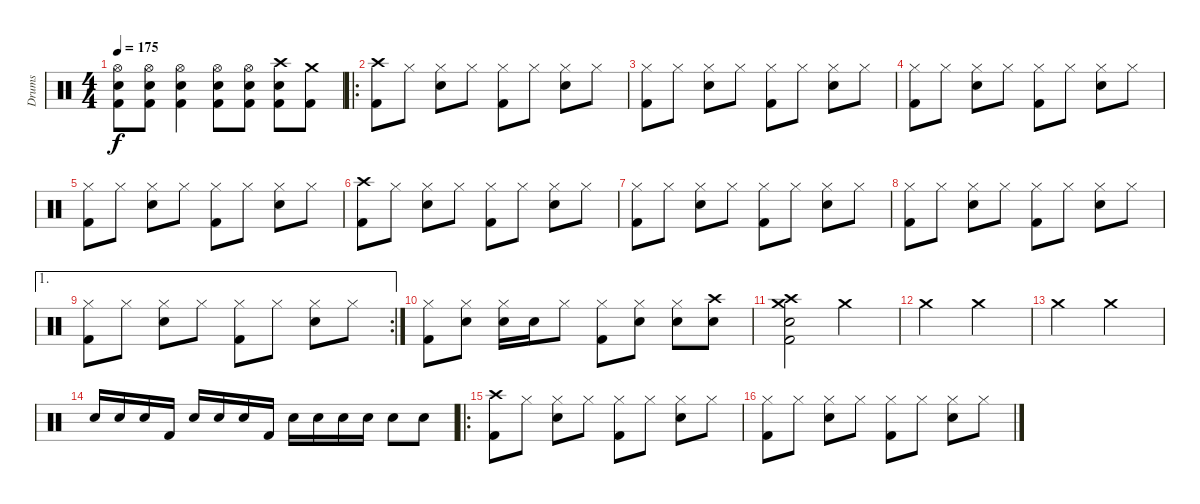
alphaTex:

\track ("Drums" "Drums") {instrument percussion}
\staff {score}
\articulation defaults
\ts (4 4)
\tempo 175
\clef neutral
\ks c
("Hi-Hat (open)" "Snare (hit) 2" "Kick (hit) 2").8{dy f} ("Hi-Hat (open)" "Snare (hit) 2" "Kick (hit) 2").8 ("Hi-Hat (open)" "Snare (hit) 2" "Kick (hit) 2").4 ("Hi-Hat (open)" "Snare (hit) 2" "Kick (hit) 2").8 ("Hi-Hat (open)" "Snare (hit) 2" "Kick (hit) 2").8 ("Crash high (hit)" "Snare (hit) 2" "Kick (hit) 2").8 ("Crash medium (hit)" "Kick (hit) 2").8 |
\ro
("Crash high (hit)" "Kick (hit) 2").8 "Hi-Hat (closed)".8 ("Hi-Hat (closed)" "Snare (hit) 2").8 "Hi-Hat (closed)".8 ("Hi-Hat (closed)" "Kick (hit) 2").8 "Hi-Hat (closed)".8 ("Hi-Hat (closed)" "Snare (hit) 2").8 "Hi-Hat (closed)".8 |
("Hi-Hat (closed)" "Kick (hit) 2").8 "Hi-Hat (closed)".8 ("Hi-Hat (closed)" "Snare (hit) 2").8 "Hi-Hat (closed)".8 ("Hi-Hat (closed)" "Kick (hit) 2").8 "Hi-Hat (closed)".8 ("Hi-Hat (closed)" "Snare (hit) 2").8 "Hi-Hat (closed)".8 |
("Hi-Hat (closed)" "Kick (hit) 2").8 "Hi-Hat (closed)".8 ("Hi-Hat (closed)" "Snare (hit) 2").8 "Hi-Hat (closed)".8 ("Hi-Hat (closed)" "Kick (hit) 2").8 "Hi-Hat (closed)".8 ("Hi-Hat (closed)" "Snare (hit) 2").8 "Hi-Hat (closed)".8 |
("Hi-Hat (closed)" "Kick (hit) 2").8 "Hi-Hat (closed)".8 ("Hi-Hat (closed)" "Snare (hit) 2").8 "Hi-Hat (closed)".8 ("Hi-Hat (closed)" "Kick (hit) 2").8 "Hi-Hat (closed)".8 ("Hi-Hat (closed)" "Snare (hit) 2").8 "Hi-Hat (closed)".8 |
("Crash high (hit)" "Kick (hit) 2").8 "Hi-Hat (closed)".8 ("Hi-Hat (closed)" "Snare (hit) 2").8 "Hi-Hat (closed)".8 ("Hi-Hat (closed)" "Kick (hit) 2").8 "Hi-Hat (closed)".8 ("Hi-Hat (closed)" "Snare (hit) 2").8 "Hi-Hat (closed)".8 |
("Hi-Hat (closed)" "Kick (hit) 2").8 "Hi-Hat (closed)".8 ("Hi-Hat (closed)" "Snare (hit) 2").8 "Hi-Hat (closed)".8 ("Hi-Hat (closed)" "Kick (hit) 2").8 "Hi-Hat (closed)".8 ("Hi-Hat (closed)" "Snare (hit) 2").8 "Hi-Hat (closed)".8 |
("Hi-Hat (closed)" "Kick (hit) 2").8 "Hi-Hat (closed)".8 ("Hi-Hat (closed)" "Snare (hit) 2").8 "Hi-Hat (closed)".8 ("Hi-Hat (closed)" "Kick (hit) 2").8 "Hi-Hat (closed)".8 ("Hi-Hat (closed)" "Snare (hit) 2").8 "Hi-Hat (closed)".8 |
\ae 1
\rc 2
("Hi-Hat (closed)" "Kick (hit) 2").8 "Hi-Hat (closed)".8 ("Hi-Hat (closed)" "Snare (hit) 2").8 "Hi-Hat (closed)".8 ("Hi-Hat (closed)" "Kick (hit) 2").8 "Hi-Hat (closed)".8 ("Hi-Hat (closed)" "Snare (hit) 2").8 "Hi-Hat (closed)".8 |
("Hi-Hat (closed)" "Kick (hit) 2").8 ("Hi-Hat (closed)" "Snare (hit) 2").8 ("Hi-Hat (closed)" "Snare (hit) 2").16 "Snare (hit) 2".16 "Hi-Hat (closed)".8 ("Hi-Hat (closed)" "Kick (hit) 2").8 ("Hi-Hat (closed)" "Snare (hit) 2").8 ("Hi-Hat (closed)" "Snare (hit) 2").8 ("Crash high (hit)" "Snare (hit) 2").8 |
("Crash medium (hit)" "Crash high (hit)" "Snare (hit) 2" "Kick (hit) 2").2 "Crash medium (hit)".2 |
"Crash medium (hit)".2 "Crash medium (hit)".2 |
"Crash medium (hit)".2 "Crash medium (hit)".2 |
"Snare (hit) 2".16 "Snare (hit) 2".16 "Snare (hit) 2".16 "Kick (hit) 2".16 "Snare (hit) 2".16 "Snare (hit) 2".16 "Snare (hit) 2".16 "Kick (hit) 2".16 "Snare (hit) 2".16 "Snare (hit) 2".16 "Snare (hit) 2".16 "Snare (hit) 2".16 "Snare (hit) 2".8 "Snare (hit) 2".8 |
\ro
("Crash high (hit)" "Kick (hit) 2").8 "Hi-Hat (closed)".8 ("Hi-Hat (closed)" "Snare (hit) 2").8 "Hi-Hat (closed)".8 ("Hi-Hat (closed)" "Kick (hit) 2").8 "Hi-Hat (closed)".8 ("Hi-Hat (closed)" "Snare (hit) 2").8 "Hi-Hat (closed)".8 |
("Hi-Hat (closed)" "Kick (hit) 2").8 "Hi-Hat (closed)".8 ("Hi-Hat (closed)" "Snare (hit) 2").8 "Hi-Hat (closed)".8 ("Hi-Hat (closed)" "Kick (hit) 2").8 "Hi-Hat (closed)".8 ("Hi-Hat (closed)" "Snare (hit) 2").8 "Hi-Hat (closed)".8
